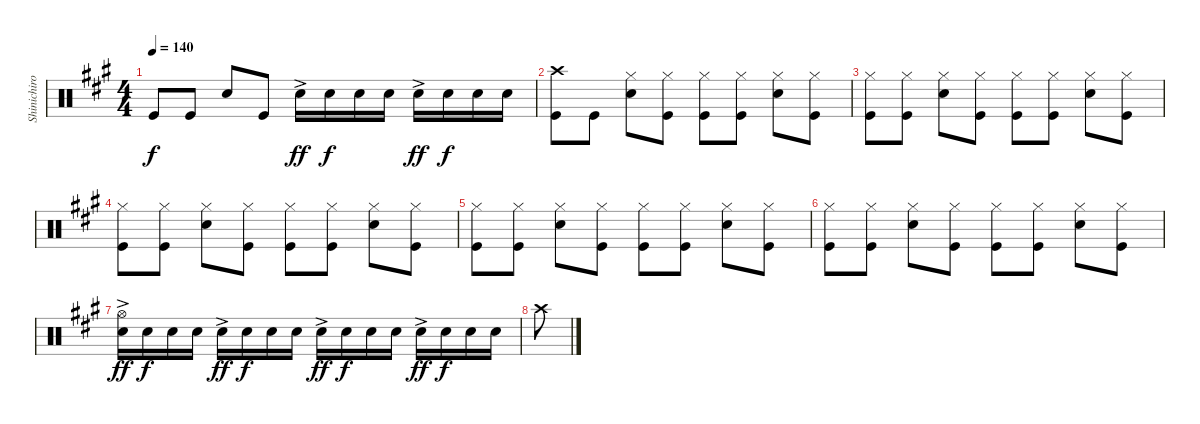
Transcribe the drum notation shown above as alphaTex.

\track ("Shinichiro Drums" "Shinichiro") {instrument percussion}
\staff {score}
\articulation defaults
\ts (4 4)
\tempo 140
\clef neutral
\ks a "Kick (hit)".8{dy f} "Kick (hit)".8 "Snare (hit) 2".8 "Kick (hit)".8 "Snare (hit) 2"{ac}.16{dy ff} "Snare (hit) 2".16{dy f} "Snare (hit) 2".16 "Snare (hit) 2".16 "Snare (hit) 2"{ac}.16{dy ff} "Snare (hit) 2".16{dy f} "Snare (hit) 2".16 "Snare (hit) 2".16
|
("Crash high (hit)" "Kick (hit)").8 "Kick (hit)".8 ("Hi-Hat (closed)" "Snare (hit) 2").8 ("Hi-Hat (closed)" "Kick (hit)").8 ("Hi-Hat (closed)" "Kick (hit)").8 ("Hi-Hat (closed)" "Kick (hit)").8 ("Hi-Hat (closed)" "Snare (hit) 2").8 ("Hi-Hat (closed)" "Kick (hit)").8 |
("Hi-Hat (closed)" "Kick (hit)").8 ("Hi-Hat (closed)" "Kick (hit)").8 ("Hi-Hat (closed)" "Snare (hit) 2").8 ("Hi-Hat (closed)" "Kick (hit)").8 ("Hi-Hat (closed)" "Kick (hit)").8 ("Hi-Hat (closed)" "Kick (hit)").8 ("Hi-Hat (closed)" "Snare (hit) 2").8 ("Hi-Hat (closed)" "Kick (hit)").8 |
("Hi-Hat (closed)" "Kick (hit)").8 ("Hi-Hat (closed)" "Kick (hit)").8 ("Hi-Hat (closed)" "Snare (hit) 2").8 ("Hi-Hat (closed)" "Kick (hit)").8 ("Hi-Hat (closed)" "Kick (hit)").8 ("Hi-Hat (closed)" "Kick (hit)").8 ("Hi-Hat (closed)" "Snare (hit) 2").8 ("Hi-Hat (closed)" "Kick (hit)").8 |
("Hi-Hat (closed)" "Kick (hit)").8 ("Hi-Hat (closed)" "Kick (hit)").8 ("Hi-Hat (closed)" "Snare (hit) 2").8 ("Hi-Hat (closed)" "Kick (hit)").8 ("Hi-Hat (closed)" "Kick (hit)").8 ("Hi-Hat (closed)" "Kick (hit)").8 ("Hi-Hat (closed)" "Snare (hit) 2").8 ("Hi-Hat (closed)" "Kick (hit)").8 |
("Hi-Hat (closed)" "Kick (hit)").8 ("Hi-Hat (closed)" "Kick (hit)").8 ("Hi-Hat (closed)" "Snare (hit) 2").8 ("Hi-Hat (closed)" "Kick (hit)").8 ("Hi-Hat (closed)" "Kick (hit)").8 ("Hi-Hat (closed)" "Kick (hit)").8 ("Hi-Hat (closed)" "Snare (hit) 2").8 ("Hi-Hat (closed)" "Kick (hit)").8 |
("Hi-Hat (open)" "Snare (hit) 2"{ac}).16{dy ff} "Snare (hit) 2".16{dy f} "Snare (hit) 2".16 "Snare (hit) 2".16 "Snare (hit) 2"{ac}.16{dy ff} "Snare (hit) 2".16{dy f} "Snare (hit) 2".16 "Snare (hit) 2".16 "Snare (hit) 2"{ac}.16{dy ff} "Snare (hit) 2".16{dy f} "Snare (hit) 2".16 "Snare (hit) 2".16 "Snare (hit) 2"{ac}.16{dy ff} "Snare (hit) 2".16{dy f} "Snare (hit) 2".16 "Snare (hit) 2".16 |
"Crash high (hit)".8
